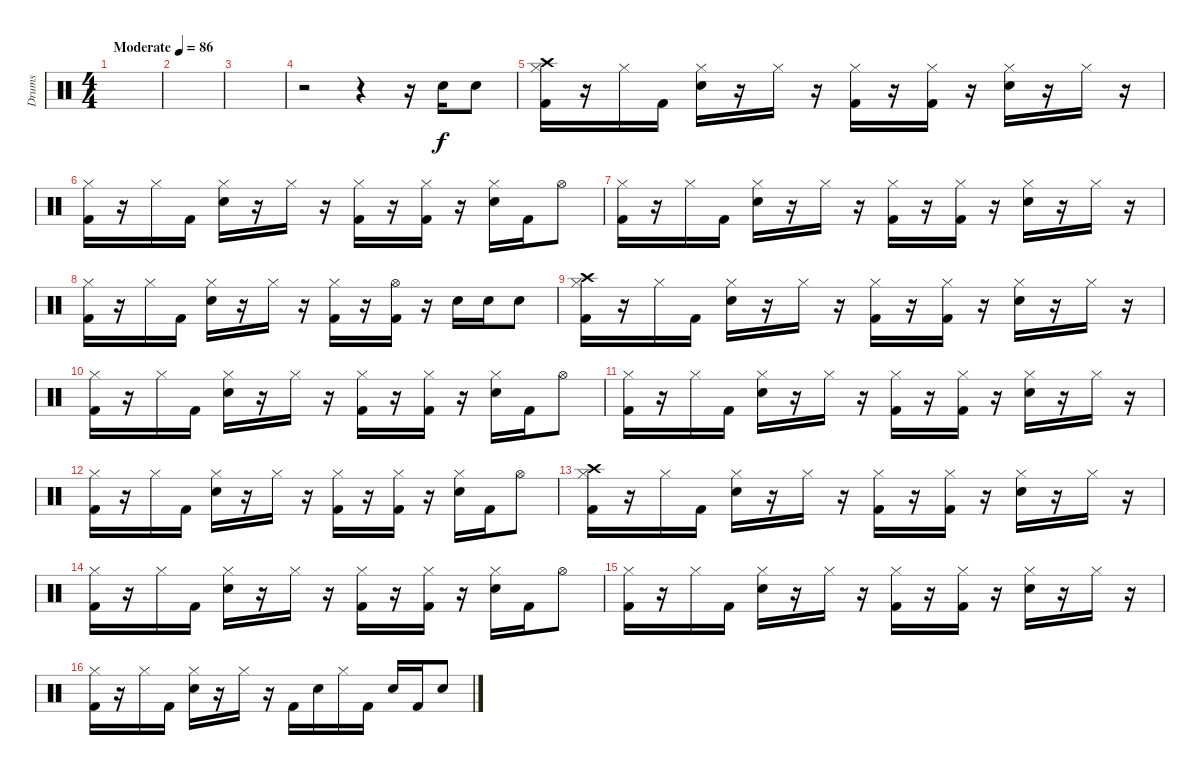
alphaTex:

\track ("Drums" "Drums") {instrument percussion}
\staff {score}
\articulation defaults
\ts (4 4)
\tempo (86 "Moderate")
\clef neutral
\ks c
|
|
|
r.2 r.4 r.16 "Snare (hit) 2".16 "Snare (hit) 2".8 |
("Hi-Hat (closed)" "Kick (hit) 2" "Crash high (hit)").16 r.16 "Hi-Hat (closed)".16 "Kick (hit) 2".16 ("Hi-Hat (closed)" "Snare (hit) 2").16 r.16 "Hi-Hat (closed)".16 r.16 ("Hi-Hat (closed)" "Kick (hit) 2").16 r.16 ("Hi-Hat (closed)" "Kick (hit) 2").16 r.16 ("Hi-Hat (closed)" "Snare (hit) 2").16 r.16 "Hi-Hat (closed)".16 r.16 |
("Hi-Hat (closed)" "Kick (hit) 2").16 r.16 "Hi-Hat (closed)".16 "Kick (hit) 2".16 ("Hi-Hat (closed)" "Snare (hit) 2").16 r.16 "Hi-Hat (closed)".16 r.16 ("Hi-Hat (closed)" "Kick (hit) 2").16 r.16 ("Hi-Hat (closed)" "Kick (hit) 2").16 r.16 ("Hi-Hat (closed)" "Snare (hit) 2").16 "Kick (hit) 2".16 "Hi-Hat (open)".8 |
("Hi-Hat (closed)" "Kick (hit) 2").16 r.16 "Hi-Hat (closed)".16 "Kick (hit) 2".16 ("Hi-Hat (closed)" "Snare (hit) 2").16 r.16 "Hi-Hat (closed)".16 r.16 ("Hi-Hat (closed)" "Kick (hit) 2").16 r.16 ("Hi-Hat (closed)" "Kick (hit) 2").16 r.16 ("Hi-Hat (closed)" "Snare (hit) 2").16 r.16 "Hi-Hat (closed)".16 r.16 |
("Hi-Hat (closed)" "Kick (hit) 2").16 r.16 "Hi-Hat (closed)".16 "Kick (hit) 2".16 ("Hi-Hat (closed)" "Snare (hit) 2").16 r.16 "Hi-Hat (closed)".16 r.16 ("Hi-Hat (closed)" "Kick (hit) 2").16 r.16 ("Hi-Hat (open)" "Kick (hit) 2").16 r.16 "Snare (hit) 2".16 "Snare (hit) 2".16 "Snare (hit) 2".8 |
("Hi-Hat (closed)" "Kick (hit) 2" "Crash high (hit)").16 r.16 "Hi-Hat (closed)".16 "Kick (hit) 2".16 ("Hi-Hat (closed)" "Snare (hit) 2").16 r.16 "Hi-Hat (closed)".16 r.16 ("Hi-Hat (closed)" "Kick (hit) 2").16 r.16 ("Hi-Hat (closed)" "Kick (hit) 2").16 r.16 ("Hi-Hat (closed)" "Snare (hit) 2").16 r.16 "Hi-Hat (closed)".16 r.16 |
("Hi-Hat (closed)" "Kick (hit) 2").16 r.16 "Hi-Hat (closed)".16 "Kick (hit) 2".16 ("Hi-Hat (closed)" "Snare (hit) 2").16 r.16 "Hi-Hat (closed)".16 r.16 ("Hi-Hat (closed)" "Kick (hit) 2").16 r.16 ("Hi-Hat (closed)" "Kick (hit) 2").16 r.16 ("Hi-Hat (closed)" "Snare (hit) 2").16 "Kick (hit) 2".16 "Hi-Hat (open)".8 |
("Hi-Hat (closed)" "Kick (hit) 2").16 r.16 "Hi-Hat (closed)".16 "Kick (hit) 2".16 ("Hi-Hat (closed)" "Snare (hit) 2").16 r.16 "Hi-Hat (closed)".16 r.16 ("Hi-Hat (closed)" "Kick (hit) 2").16 r.16 ("Hi-Hat (closed)" "Kick (hit) 2").16 r.16 ("Hi-Hat (closed)" "Snare (hit) 2").16 r.16 "Hi-Hat (closed)".16 r.16 |
("Hi-Hat (closed)" "Kick (hit) 2").16 r.16 "Hi-Hat (closed)".16 "Kick (hit) 2".16 ("Hi-Hat (closed)" "Snare (hit) 2").16 r.16 "Hi-Hat (closed)".16 r.16 ("Hi-Hat (closed)" "Kick (hit) 2").16 r.16 ("Hi-Hat (closed)" "Kick (hit) 2").16 r.16 ("Hi-Hat (closed)" "Snare (hit) 2").16 "Kick (hit) 2".16 "Hi-Hat (open)".8 |
("Hi-Hat (closed)" "Kick (hit) 2" "Crash high (hit)").16 r.16 "Hi-Hat (closed)".16 "Kick (hit) 2".16 ("Hi-Hat (closed)" "Snare (hit) 2").16 r.16 "Hi-Hat (closed)".16 r.16 ("Hi-Hat (closed)" "Kick (hit) 2").16 r.16 ("Hi-Hat (closed)" "Kick (hit) 2").16 r.16 ("Hi-Hat (closed)" "Snare (hit) 2").16 r.16 "Hi-Hat (closed)".16 r.16 |
("Hi-Hat (closed)" "Kick (hit) 2").16 r.16 "Hi-Hat (closed)".16 "Kick (hit) 2".16 ("Hi-Hat (closed)" "Snare (hit) 2").16 r.16 "Hi-Hat (closed)".16 r.16 ("Hi-Hat (closed)" "Kick (hit) 2").16 r.16 ("Hi-Hat (closed)" "Kick (hit) 2").16 r.16 ("Hi-Hat (closed)" "Snare (hit) 2").16 "Kick (hit) 2".16 "Hi-Hat (open)".8 |
("Hi-Hat (closed)" "Kick (hit) 2").16 r.16 "Hi-Hat (closed)".16 "Kick (hit) 2".16 ("Hi-Hat (closed)" "Snare (hit) 2").16 r.16 "Hi-Hat (closed)".16 r.16 ("Hi-Hat (closed)" "Kick (hit) 2").16 r.16 ("Hi-Hat (closed)" "Kick (hit) 2").16 r.16 ("Hi-Hat (closed)" "Snare (hit) 2").16 r.16 "Hi-Hat (closed)".16 r.16 |
("Hi-Hat (closed)" "Kick (hit) 2").16 r.16 "Hi-Hat (closed)".16 "Kick (hit) 2".16 ("Hi-Hat (closed)" "Snare (hit) 2").16 r.16 "Hi-Hat (closed)".16 r.16 "Kick (hit) 2".16 "Snare (hit) 2".16 "Hi-Hat (closed)".16 "Kick (hit) 2".16 "Snare (hit) 2".16 "Kick (hit) 2".16 "Snare (hit) 2".8
